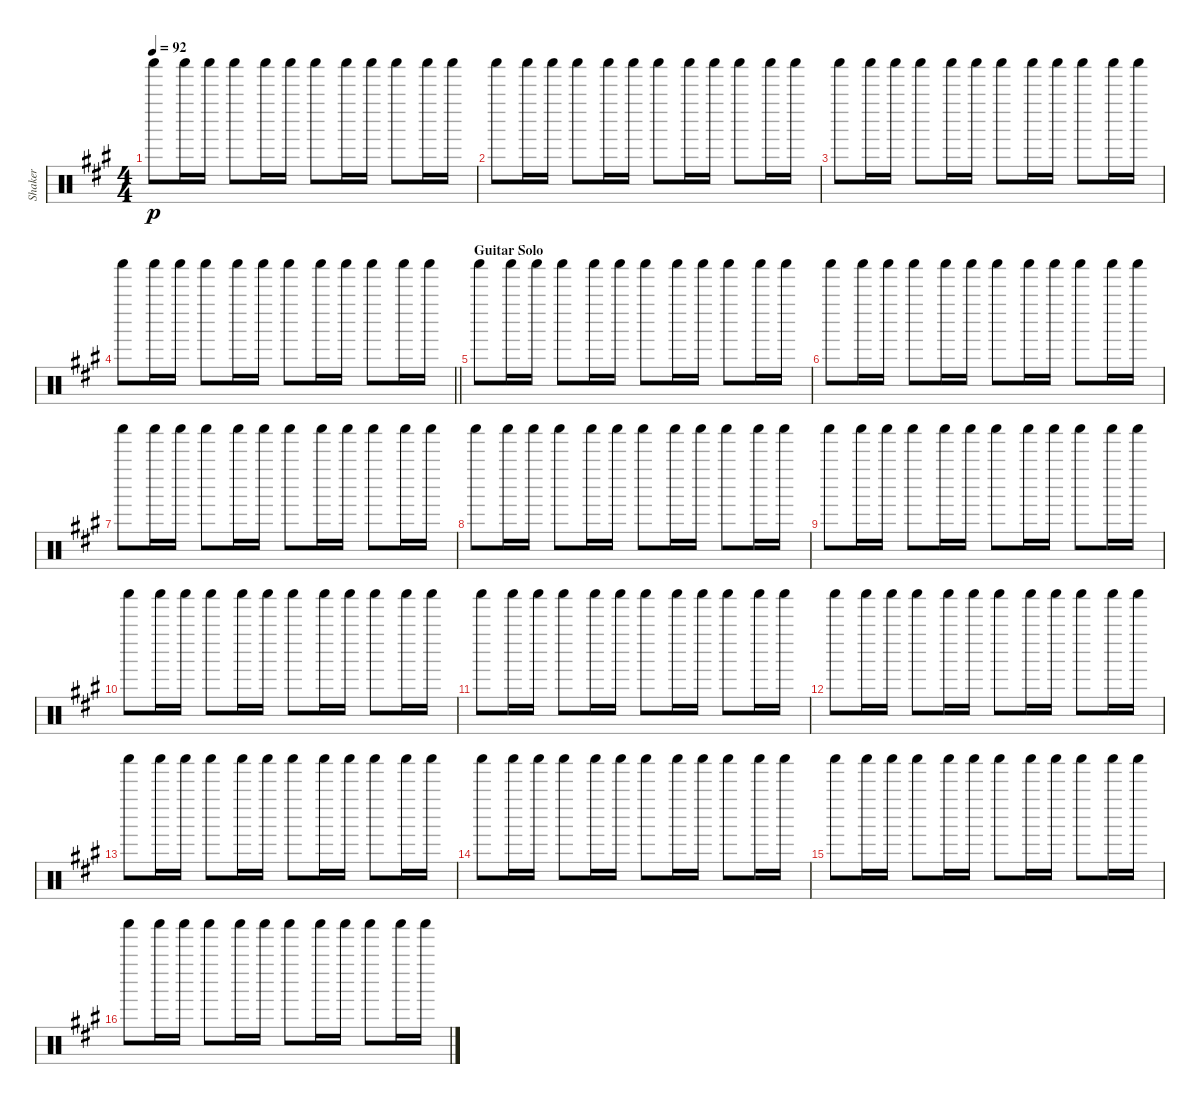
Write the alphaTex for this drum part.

\track ("Shaker" "Shaker") {instrument percussion}
\staff {score}
\articulation defaults
\ts (4 4)
\tempo 92
\clef neutral
\ks f#minor "Shaker (hit)".8{dy p} "Shaker (hit)".16 "Shaker (hit)".16 "Shaker (hit)".8 "Shaker (hit)".16 "Shaker (hit)".16 "Shaker (hit)".8 "Shaker (hit)".16 "Shaker (hit)".16 "Shaker (hit)".8 "Shaker (hit)".16 "Shaker (hit)".16
|
"Shaker (hit)".8 "Shaker (hit)".16 "Shaker (hit)".16 "Shaker (hit)".8 "Shaker (hit)".16 "Shaker (hit)".16 "Shaker (hit)".8 "Shaker (hit)".16 "Shaker (hit)".16 "Shaker (hit)".8 "Shaker (hit)".16 "Shaker (hit)".16 |
"Shaker (hit)".8 "Shaker (hit)".16 "Shaker (hit)".16 "Shaker (hit)".8 "Shaker (hit)".16 "Shaker (hit)".16 "Shaker (hit)".8 "Shaker (hit)".16 "Shaker (hit)".16 "Shaker (hit)".8 "Shaker (hit)".16 "Shaker (hit)".16 |
\barLineRight lightlight "Shaker (hit)".8 "Shaker (hit)".16 "Shaker (hit)".16 "Shaker (hit)".8 "Shaker (hit)".16 "Shaker (hit)".16 "Shaker (hit)".8 "Shaker (hit)".16 "Shaker (hit)".16 "Shaker (hit)".8 "Shaker (hit)".16 "Shaker (hit)".16
|
\section ("" "Guitar Solo")
"Shaker (hit)".8 "Shaker (hit)".16 "Shaker (hit)".16 "Shaker (hit)".8 "Shaker (hit)".16 "Shaker (hit)".16 "Shaker (hit)".8 "Shaker (hit)".16 "Shaker (hit)".16 "Shaker (hit)".8 "Shaker (hit)".16 "Shaker (hit)".16 |
"Shaker (hit)".8 "Shaker (hit)".16 "Shaker (hit)".16 "Shaker (hit)".8 "Shaker (hit)".16 "Shaker (hit)".16 "Shaker (hit)".8 "Shaker (hit)".16 "Shaker (hit)".16 "Shaker (hit)".8 "Shaker (hit)".16 "Shaker (hit)".16 |
"Shaker (hit)".8 "Shaker (hit)".16 "Shaker (hit)".16 "Shaker (hit)".8 "Shaker (hit)".16 "Shaker (hit)".16 "Shaker (hit)".8 "Shaker (hit)".16 "Shaker (hit)".16 "Shaker (hit)".8 "Shaker (hit)".16 "Shaker (hit)".16 |
"Shaker (hit)".8 "Shaker (hit)".16 "Shaker (hit)".16 "Shaker (hit)".8 "Shaker (hit)".16 "Shaker (hit)".16 "Shaker (hit)".8 "Shaker (hit)".16 "Shaker (hit)".16 "Shaker (hit)".8 "Shaker (hit)".16 "Shaker (hit)".16 |
"Shaker (hit)".8 "Shaker (hit)".16 "Shaker (hit)".16 "Shaker (hit)".8 "Shaker (hit)".16 "Shaker (hit)".16 "Shaker (hit)".8 "Shaker (hit)".16 "Shaker (hit)".16 "Shaker (hit)".8 "Shaker (hit)".16 "Shaker (hit)".16 |
"Shaker (hit)".8 "Shaker (hit)".16 "Shaker (hit)".16 "Shaker (hit)".8 "Shaker (hit)".16 "Shaker (hit)".16 "Shaker (hit)".8 "Shaker (hit)".16 "Shaker (hit)".16 "Shaker (hit)".8 "Shaker (hit)".16 "Shaker (hit)".16 |
"Shaker (hit)".8 "Shaker (hit)".16 "Shaker (hit)".16 "Shaker (hit)".8 "Shaker (hit)".16 "Shaker (hit)".16 "Shaker (hit)".8 "Shaker (hit)".16 "Shaker (hit)".16 "Shaker (hit)".8 "Shaker (hit)".16 "Shaker (hit)".16 |
"Shaker (hit)".8 "Shaker (hit)".16 "Shaker (hit)".16 "Shaker (hit)".8 "Shaker (hit)".16 "Shaker (hit)".16 "Shaker (hit)".8 "Shaker (hit)".16 "Shaker (hit)".16 "Shaker (hit)".8 "Shaker (hit)".16 "Shaker (hit)".16 |
"Shaker (hit)".8 "Shaker (hit)".16 "Shaker (hit)".16 "Shaker (hit)".8 "Shaker (hit)".16 "Shaker (hit)".16 "Shaker (hit)".8 "Shaker (hit)".16 "Shaker (hit)".16 "Shaker (hit)".8 "Shaker (hit)".16 "Shaker (hit)".16 |
"Shaker (hit)".8 "Shaker (hit)".16 "Shaker (hit)".16 "Shaker (hit)".8 "Shaker (hit)".16 "Shaker (hit)".16 "Shaker (hit)".8 "Shaker (hit)".16 "Shaker (hit)".16 "Shaker (hit)".8 "Shaker (hit)".16 "Shaker (hit)".16 |
"Shaker (hit)".8 "Shaker (hit)".16 "Shaker (hit)".16 "Shaker (hit)".8 "Shaker (hit)".16 "Shaker (hit)".16 "Shaker (hit)".8 "Shaker (hit)".16 "Shaker (hit)".16 "Shaker (hit)".8 "Shaker (hit)".16 "Shaker (hit)".16 |
"Shaker (hit)".8 "Shaker (hit)".16 "Shaker (hit)".16 "Shaker (hit)".8 "Shaker (hit)".16 "Shaker (hit)".16 "Shaker (hit)".8 "Shaker (hit)".16 "Shaker (hit)".16 "Shaker (hit)".8 "Shaker (hit)".16 "Shaker (hit)".16
